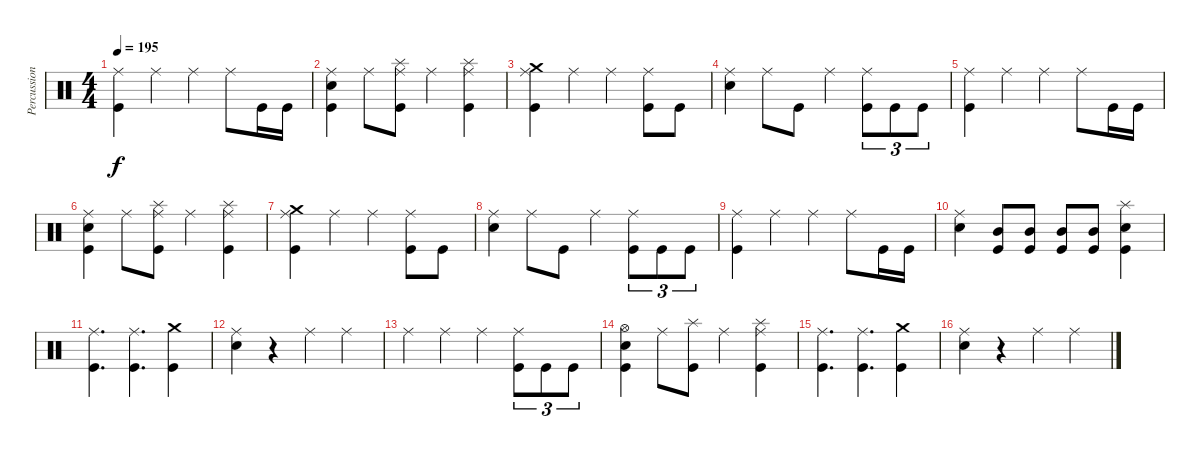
\track ("Percussion" "Percussion") {instrument percussion}
\staff {score}
\articulation defaults
\ts (4 4)
\tempo 195
\clef neutral
\ks c
("Ride (middle)" "Kick (hit)").4{dy f} "Ride (middle)".4 "Ride (middle)".4 "Ride (middle)".8 "Kick (hit)".16 "Kick (hit)".16 |
("Ride (middle)" "Electric Snare (hit)" "Kick (hit)").4 "Ride (middle)".8 ("Ride (middle)" "Splash (hit)" "Kick (hit)").8 "Ride (middle)".4 ("Ride (middle)" "Splash (hit)" "Kick (hit)").4 |
("Crash medium (hit)" "Ride (middle)" "Kick (hit)").4 "Ride (middle)".4 "Ride (middle)".4 ("Ride (middle)" "Kick (hit)").8 "Kick (hit)".8 |
("Ride (middle)" "Electric Snare (hit)").4 "Ride (middle)".8 "Kick (hit)".8 "Ride (middle)".4 ("Ride (middle)" "Kick (hit)").8{tu (3 2)} "Kick (hit)".8{tu (3 2)} "Kick (hit)".8{tu (3 2)} |
("Ride (middle)" "Kick (hit)").4 "Ride (middle)".4 "Ride (middle)".4 "Ride (middle)".8 "Kick (hit)".16 "Kick (hit)".16 |
("Ride (middle)" "Electric Snare (hit)" "Kick (hit)").4 "Ride (middle)".8 ("Ride (middle)" "Splash (hit)" "Kick (hit)").8 "Ride (middle)".4 ("Ride (middle)" "Splash (hit)" "Kick (hit)").4 |
("Crash medium (hit)" "Ride (middle)" "Kick (hit)").4 "Ride (middle)".4 "Ride (middle)".4 ("Ride (middle)" "Kick (hit)").8 "Kick (hit)".8 |
("Ride (middle)" "Electric Snare (hit)").4 "Ride (middle)".8 "Kick (hit)".8 "Ride (middle)".4 ("Ride (middle)" "Kick (hit)").8{tu (3 2)} "Kick (hit)".8{tu (3 2)} "Kick (hit)".8{tu (3 2)} |
("Ride (middle)" "Kick (hit)").4 "Ride (middle)".4 "Ride (middle)".4 "Ride (middle)".8 "Kick (hit)".16 "Kick (hit)".16 |
("Ride (middle)" "Electric Snare (hit)").4 ("Mid Tom (hit)" "Kick (hit)").8 ("Mid Tom (hit)" "Kick (hit)").8 ("Mid Tom (hit)" "Kick (hit)").8 ("Mid Tom (hit)" "Kick (hit)").8 ("Splash (hit)" "Electric Snare (hit)" "Kick (hit)").4 |
("Ride (middle)" "Kick (hit)").4{d} ("Ride (middle)" "Kick (hit)").4{d} ("Crash medium (hit)" "Kick (hit)").4 |
("Ride (middle)" "Electric Snare (hit)").4 r.4 "Ride (middle)".4 "Ride (middle)".4 |
"Ride (middle)".4 "Ride (middle)".4 "Ride (middle)".4 ("Ride (middle)" "Kick (hit)").8{tu (3 2)} "Kick (hit)".8{tu (3 2)} "Kick (hit)".8{tu (3 2)} |
("Hi-Hat (open)" "Electric Snare (hit)" "Kick (hit)").4 "Ride (middle)".8 ("Splash (hit)" "Kick (hit)").8 "Ride (middle)".4 ("Splash (hit)" "Ride (middle)" "Kick (hit)").4 |
("Ride (middle)" "Kick (hit)").4{d} ("Ride (middle)" "Kick (hit)").4{d} ("Crash medium (hit)" "Kick (hit)").4 |
("Ride (middle)" "Electric Snare (hit)").4 r.4 "Ride (middle)".4 "Ride (middle)".4
